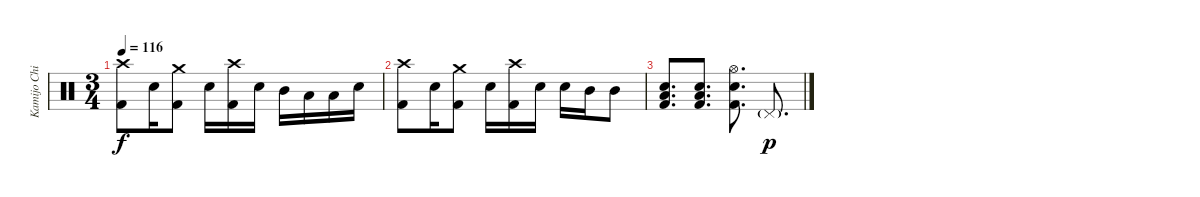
\track ("Kamijo Chihiro" "Kamijo Chi") {instrument percussion}
\staff {score}
\articulation defaults
\ts (3 4)
\tempo 116
\clef neutral
\ks c
("Crash high (hit)" "Kick (hit) 2").8{dy f} "Snare (hit) 2".16 ("Crash medium (hit)" "Kick (hit) 2").8 "Snare (hit) 2".16 ("Crash high (hit)" "Kick (hit) 2").16 "Snare (hit) 2".16 "Mid Tom (hit)".16 "Low Tom (hit)".16 "Low Floor Tom (hit)".16 "Snare (hit) 2".16 |
("Crash high (hit)" "Kick (hit) 2").8 "Snare (hit) 2".16 ("Crash medium (hit)" "Kick (hit) 2").8 "Snare (hit) 2".16 ("Crash high (hit)" "Kick (hit) 2").16 "Snare (hit) 2".16 "Snare (hit) 2".16 "Mid Tom (hit)".16 "Mid Tom (hit)".8 |
("Snare (hit) 2" "Low Floor Tom (hit)" "Kick (hit) 2").8{d} ("Snare (hit) 2" "Low Floor Tom (hit)" "Kick (hit) 2").8{d} ("Hi-Hat (open)" "Snare (hit) 2" "Kick (hit) 2").8{d} "Pedal Hi-Hat (hit)"{g}.8{d dy p}
